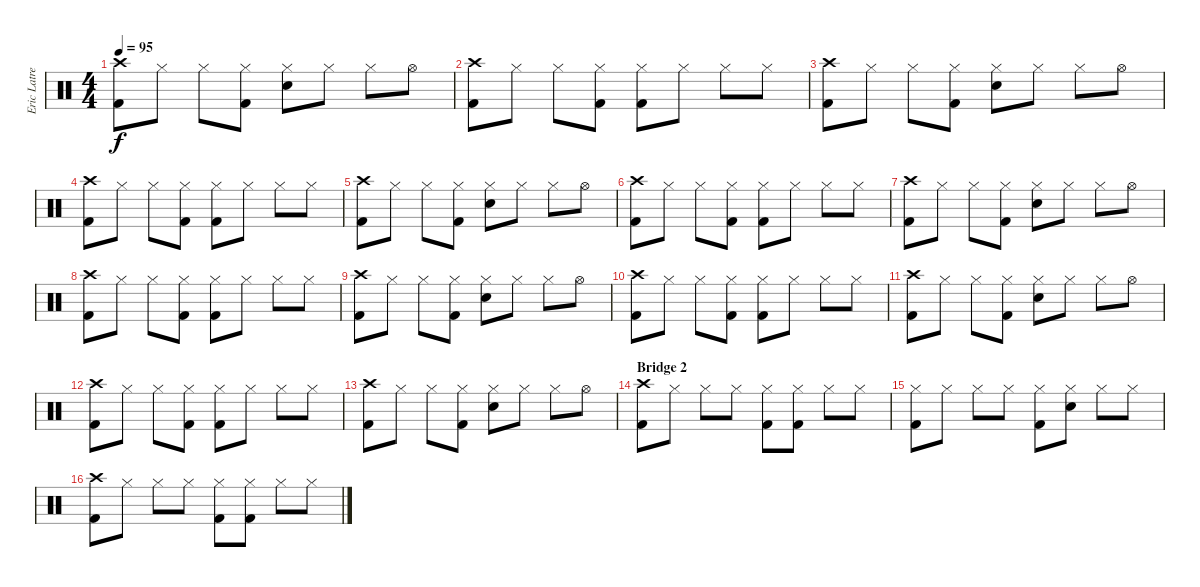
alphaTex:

\track ("Eric Latreille" "Eric Latre") {instrument percussion}
\staff {score}
\articulation defaults
\ts (4 4)
\tempo 95
\clef neutral
\ks c
("Crash high (hit)" "Kick (hit) 2").8{dy f} "Hi-Hat (closed)".8 "Hi-Hat (closed)".8 ("Hi-Hat (closed)" "Kick (hit) 2").8 ("Hi-Hat (closed)" "Snare (hit) 2").8 "Hi-Hat (closed)".8 "Hi-Hat (closed)".8 "Hi-Hat (open)".8 |
("Crash high (hit)" "Kick (hit) 2").8 "Hi-Hat (closed)".8 "Hi-Hat (closed)".8 ("Hi-Hat (closed)" "Kick (hit) 2").8 ("Hi-Hat (closed)" "Kick (hit) 2").8 "Hi-Hat (closed)".8 "Hi-Hat (closed)".8 "Hi-Hat (closed)".8 |
("Crash high (hit)" "Kick (hit) 2").8 "Hi-Hat (closed)".8 "Hi-Hat (closed)".8 ("Hi-Hat (closed)" "Kick (hit) 2").8 ("Hi-Hat (closed)" "Snare (hit) 2").8 "Hi-Hat (closed)".8 "Hi-Hat (closed)".8 "Hi-Hat (open)".8 |
("Crash high (hit)" "Kick (hit) 2").8 "Hi-Hat (closed)".8 "Hi-Hat (closed)".8 ("Hi-Hat (closed)" "Kick (hit) 2").8 ("Hi-Hat (closed)" "Kick (hit) 2").8 "Hi-Hat (closed)".8 "Hi-Hat (closed)".8 "Hi-Hat (closed)".8 |
("Crash high (hit)" "Kick (hit) 2").8 "Hi-Hat (closed)".8 "Hi-Hat (closed)".8 ("Hi-Hat (closed)" "Kick (hit) 2").8 ("Hi-Hat (closed)" "Snare (hit) 2").8 "Hi-Hat (closed)".8 "Hi-Hat (closed)".8 "Hi-Hat (open)".8 |
("Crash high (hit)" "Kick (hit) 2").8 "Hi-Hat (closed)".8 "Hi-Hat (closed)".8 ("Hi-Hat (closed)" "Kick (hit) 2").8 ("Hi-Hat (closed)" "Kick (hit) 2").8 "Hi-Hat (closed)".8 "Hi-Hat (closed)".8 "Hi-Hat (closed)".8 |
("Crash high (hit)" "Kick (hit) 2").8 "Hi-Hat (closed)".8 "Hi-Hat (closed)".8 ("Hi-Hat (closed)" "Kick (hit) 2").8 ("Hi-Hat (closed)" "Snare (hit) 2").8 "Hi-Hat (closed)".8 "Hi-Hat (closed)".8 "Hi-Hat (open)".8 |
("Crash high (hit)" "Kick (hit) 2").8 "Hi-Hat (closed)".8 "Hi-Hat (closed)".8 ("Hi-Hat (closed)" "Kick (hit) 2").8 ("Hi-Hat (closed)" "Kick (hit) 2").8 "Hi-Hat (closed)".8 "Hi-Hat (closed)".8 "Hi-Hat (closed)".8 |
("Crash high (hit)" "Kick (hit) 2").8 "Hi-Hat (closed)".8 "Hi-Hat (closed)".8 ("Hi-Hat (closed)" "Kick (hit) 2").8 ("Hi-Hat (closed)" "Snare (hit) 2").8 "Hi-Hat (closed)".8 "Hi-Hat (closed)".8 "Hi-Hat (open)".8 |
("Crash high (hit)" "Kick (hit) 2").8 "Hi-Hat (closed)".8 "Hi-Hat (closed)".8 ("Hi-Hat (closed)" "Kick (hit) 2").8 ("Hi-Hat (closed)" "Kick (hit) 2").8 "Hi-Hat (closed)".8 "Hi-Hat (closed)".8 "Hi-Hat (closed)".8 |
("Crash high (hit)" "Kick (hit) 2").8 "Hi-Hat (closed)".8 "Hi-Hat (closed)".8 ("Hi-Hat (closed)" "Kick (hit) 2").8 ("Hi-Hat (closed)" "Snare (hit) 2").8 "Hi-Hat (closed)".8 "Hi-Hat (closed)".8 "Hi-Hat (open)".8 |
("Crash high (hit)" "Kick (hit) 2").8 "Hi-Hat (closed)".8 "Hi-Hat (closed)".8 ("Hi-Hat (closed)" "Kick (hit) 2").8 ("Hi-Hat (closed)" "Kick (hit) 2").8 "Hi-Hat (closed)".8 "Hi-Hat (closed)".8 "Hi-Hat (closed)".8 |
("Crash high (hit)" "Kick (hit) 2").8 "Hi-Hat (closed)".8 "Hi-Hat (closed)".8 ("Hi-Hat (closed)" "Kick (hit) 2").8 ("Hi-Hat (closed)" "Snare (hit) 2").8 "Hi-Hat (closed)".8 "Hi-Hat (closed)".8 "Hi-Hat (open)".8 |
\section ("" "Bridge 2")
("Crash high (hit)" "Kick (hit) 2").8 "Hi-Hat (closed)".8 "Hi-Hat (closed)".8 "Hi-Hat (closed)".8 ("Hi-Hat (closed)" "Kick (hit) 2").8 ("Hi-Hat (closed)" "Kick (hit) 2").8 "Hi-Hat (closed)".8 "Hi-Hat (closed)".8 |
("Hi-Hat (closed)" "Kick (hit) 2").8 "Hi-Hat (closed)".8 "Hi-Hat (closed)".8 "Hi-Hat (closed)".8 ("Hi-Hat (closed)" "Kick (hit) 2").8 ("Hi-Hat (closed)" "Snare (hit) 2").8 "Hi-Hat (closed)".8 "Hi-Hat (closed)".8 |
("Crash high (hit)" "Kick (hit) 2").8 "Hi-Hat (closed)".8 "Hi-Hat (closed)".8 "Hi-Hat (closed)".8 ("Hi-Hat (closed)" "Kick (hit) 2").8 ("Hi-Hat (closed)" "Kick (hit) 2").8 "Hi-Hat (closed)".8 "Hi-Hat (closed)".8
